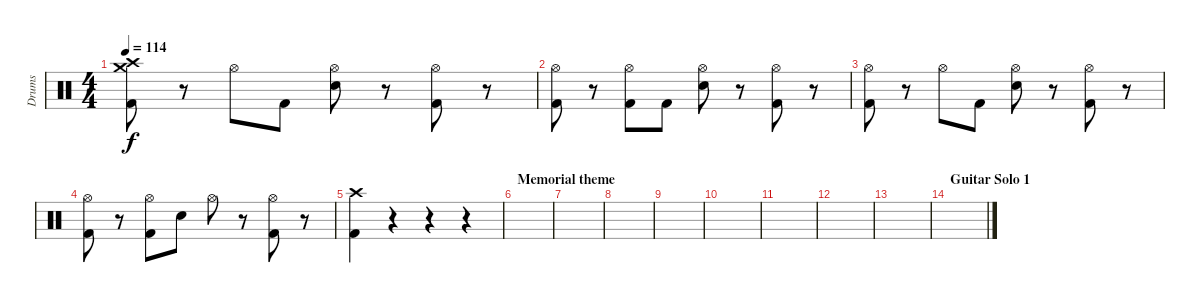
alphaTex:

\track ("Drums" "Drums") {instrument percussion}
\staff {score}
\articulation defaults
\ts (4 4)
\tempo 114
\clef neutral
\ks c
("Kick (hit) 2" "Crash medium (hit)" "Crash high (hit)").8{dy f} r.8 "Hi-Hat (open)".8 "Kick (hit) 2".8 ("Electric Snare (hit)" "Hi-Hat (open)").8 r.8 ("Kick (hit) 2" "Hi-Hat (open)").8 r.8 |
("Kick (hit) 2" "Hi-Hat (open)").8 r.8 ("Kick (hit) 2" "Hi-Hat (open)").8 "Kick (hit) 2".8 ("Electric Snare (hit)" "Hi-Hat (open)").8 r.8 ("Kick (hit) 2" "Hi-Hat (open)").8 r.8 |
("Kick (hit) 2" "Hi-Hat (open)").8 r.8 "Hi-Hat (open)".8 "Kick (hit) 2".8 ("Electric Snare (hit)" "Hi-Hat (open)").8 r.8 ("Kick (hit) 2" "Hi-Hat (open)").8 r.8 |
("Kick (hit) 2" "Hi-Hat (open)").8 r.8 ("Kick (hit) 2" "Hi-Hat (open)").8 "Electric Snare (hit)".8 "Hi-Hat (open)".8 r.8 ("Kick (hit) 2" "Hi-Hat (open)").8 r.8 |
("Kick (hit) 2" "Crash high (hit)").4 r.4 r.4 r.4 |
\section ("" "Memorial theme")
|
|
|
|
|
|
|
|
\section ("" "Guitar Solo 1")
